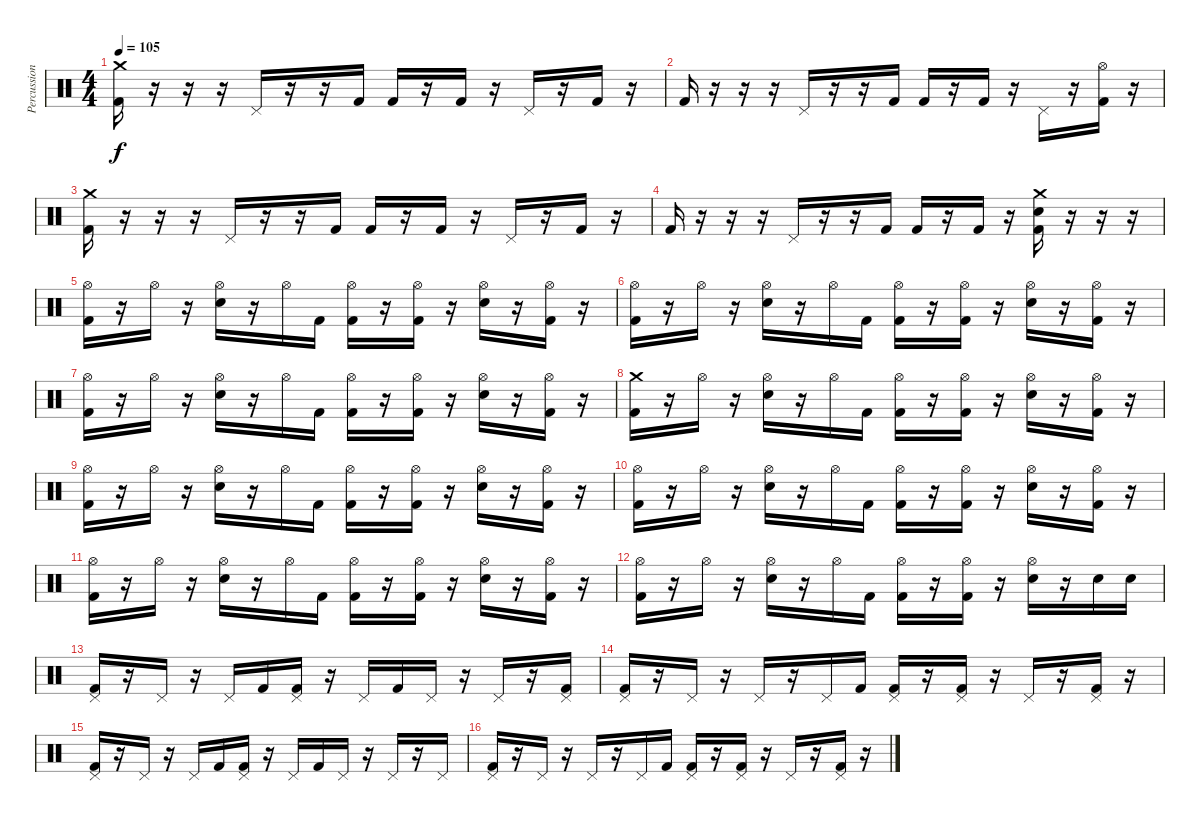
\track ("Percussions" "Percussion") {instrument percussion}
\staff {score}
\articulation defaults
\ts (4 4)
\tempo 105
\clef neutral
\ks c
("Crash medium (hit)" "Kick (hit) 2").16{dy f} r.16 r.16 r.16 "Pedal Hi-Hat (hit)".16 r.16 r.16 "Kick (hit) 2".16 "Kick (hit) 2".16 r.16 "Kick (hit) 2".16 r.16 "Pedal Hi-Hat (hit)".16 r.16 "Kick (hit) 2".16 r.16 |
"Kick (hit) 2".16 r.16 r.16 r.16 "Pedal Hi-Hat (hit)".16 r.16 r.16 "Kick (hit) 2".16 "Kick (hit) 2".16 r.16 "Kick (hit) 2".16 r.16 "Pedal Hi-Hat (hit)".16 r.16 ("Hi-Hat (open)" "Kick (hit) 2").16 r.16 |
("Crash medium (hit)" "Kick (hit) 2").16 r.16 r.16 r.16 "Pedal Hi-Hat (hit)".16 r.16 r.16 "Kick (hit) 2".16 "Kick (hit) 2".16 r.16 "Kick (hit) 2".16 r.16 "Pedal Hi-Hat (hit)".16 r.16 "Kick (hit) 2".16 r.16 |
"Kick (hit) 2".16 r.16 r.16 r.16 "Pedal Hi-Hat (hit)".16 r.16 r.16 "Kick (hit) 2".16 "Kick (hit) 2".16 r.16 "Kick (hit) 2".16 r.16 ("Crash medium (hit)" "Snare (hit) 2" "Kick (hit) 2").16 r.16 r.16 r.16 |
("Hi-Hat (open)" "Kick (hit) 2").16 r.16 "Hi-Hat (open)".16 r.16 ("Hi-Hat (open)" "Snare (hit) 2").16 r.16 "Hi-Hat (open)".16 "Kick (hit) 2".16 ("Hi-Hat (open)" "Kick (hit) 2").16 r.16 ("Hi-Hat (open)" "Kick (hit) 2").16 r.16 ("Hi-Hat (open)" "Snare (hit) 2").16 r.16 ("Hi-Hat (open)" "Kick (hit) 2").16 r.16 |
("Hi-Hat (open)" "Kick (hit) 2").16 r.16 "Hi-Hat (open)".16 r.16 ("Hi-Hat (open)" "Snare (hit) 2").16 r.16 "Hi-Hat (open)".16 "Kick (hit) 2".16 ("Hi-Hat (open)" "Kick (hit) 2").16 r.16 ("Hi-Hat (open)" "Kick (hit) 2").16 r.16 ("Hi-Hat (open)" "Snare (hit) 2").16 r.16 ("Hi-Hat (open)" "Kick (hit) 2").16 r.16 |
("Hi-Hat (open)" "Kick (hit) 2").16 r.16 "Hi-Hat (open)".16 r.16 ("Hi-Hat (open)" "Snare (hit) 2").16 r.16 "Hi-Hat (open)".16 "Kick (hit) 2".16 ("Hi-Hat (open)" "Kick (hit) 2").16 r.16 ("Hi-Hat (open)" "Kick (hit) 2").16 r.16 ("Hi-Hat (open)" "Snare (hit) 2").16 r.16 ("Hi-Hat (open)" "Kick (hit) 2").16 r.16 |
("Crash medium (hit)" "Kick (hit) 2").16 r.16 "Hi-Hat (open)".16 r.16 ("Hi-Hat (open)" "Snare (hit) 2").16 r.16 "Hi-Hat (open)".16 "Kick (hit) 2".16 ("Hi-Hat (open)" "Kick (hit) 2").16 r.16 ("Hi-Hat (open)" "Kick (hit) 2").16 r.16 ("Hi-Hat (open)" "Snare (hit) 2").16 r.16 ("Hi-Hat (open)" "Kick (hit) 2").16 r.16 |
("Hi-Hat (open)" "Kick (hit) 2").16 r.16 "Hi-Hat (open)".16 r.16 ("Hi-Hat (open)" "Snare (hit) 2").16 r.16 "Hi-Hat (open)".16 "Kick (hit) 2".16 ("Hi-Hat (open)" "Kick (hit) 2").16 r.16 ("Hi-Hat (open)" "Kick (hit) 2").16 r.16 ("Hi-Hat (open)" "Snare (hit) 2").16 r.16 ("Hi-Hat (open)" "Kick (hit) 2").16 r.16 |
("Hi-Hat (open)" "Kick (hit) 2").16 r.16 "Hi-Hat (open)".16 r.16 ("Hi-Hat (open)" "Snare (hit) 2").16 r.16 "Hi-Hat (open)".16 "Kick (hit) 2".16 ("Hi-Hat (open)" "Kick (hit) 2").16 r.16 ("Hi-Hat (open)" "Kick (hit) 2").16 r.16 ("Hi-Hat (open)" "Snare (hit) 2").16 r.16 ("Hi-Hat (open)" "Kick (hit) 2").16 r.16 |
("Hi-Hat (open)" "Kick (hit) 2").16 r.16 "Hi-Hat (open)".16 r.16 ("Hi-Hat (open)" "Snare (hit) 2").16 r.16 "Hi-Hat (open)".16 "Kick (hit) 2".16 ("Hi-Hat (open)" "Kick (hit) 2").16 r.16 ("Hi-Hat (open)" "Kick (hit) 2").16 r.16 ("Hi-Hat (open)" "Snare (hit) 2").16 r.16 ("Hi-Hat (open)" "Kick (hit) 2").16 r.16 |
("Hi-Hat (open)" "Kick (hit) 2").16 r.16 "Hi-Hat (open)".16 r.16 ("Hi-Hat (open)" "Snare (hit) 2").16 r.16 "Hi-Hat (open)".16 "Kick (hit) 2".16 ("Hi-Hat (open)" "Kick (hit) 2").16 r.16 ("Hi-Hat (open)" "Kick (hit) 2").16 r.16 ("Hi-Hat (open)" "Snare (hit) 2").16 r.16 "Snare (hit) 2".16 "Snare (hit) 2".16 |
("Pedal Hi-Hat (hit)" "Kick (hit) 2").16 r.16 "Pedal Hi-Hat (hit)".16 r.16 "Pedal Hi-Hat (hit)".16 "Kick (hit) 2".16 ("Pedal Hi-Hat (hit)" "Kick (hit) 2").16 r.16 "Pedal Hi-Hat (hit)".16 "Kick (hit) 2".16 "Pedal Hi-Hat (hit)".16 r.16 "Pedal Hi-Hat (hit)".16 r.16 ("Pedal Hi-Hat (hit)" "Kick (hit) 2").16 |
("Pedal Hi-Hat (hit)" "Kick (hit) 2").16 r.16 "Pedal Hi-Hat (hit)".16 r.16 "Pedal Hi-Hat (hit)".16 r.16 "Pedal Hi-Hat (hit)".16 "Kick (hit) 2".16 ("Pedal Hi-Hat (hit)" "Kick (hit) 2").16 r.16 ("Pedal Hi-Hat (hit)" "Kick (hit) 2").16 r.16 "Pedal Hi-Hat (hit)".16 r.16 ("Pedal Hi-Hat (hit)" "Kick (hit) 2").16 r.16 |
("Pedal Hi-Hat (hit)" "Kick (hit) 2").16 r.16 "Pedal Hi-Hat (hit)".16 r.16 "Pedal Hi-Hat (hit)".16 "Kick (hit) 2".16 ("Pedal Hi-Hat (hit)" "Kick (hit) 2").16 r.16 "Pedal Hi-Hat (hit)".16 "Kick (hit) 2".16 "Pedal Hi-Hat (hit)".16 r.16 "Pedal Hi-Hat (hit)".16 r.16 "Pedal Hi-Hat (hit)".16 |
("Pedal Hi-Hat (hit)" "Kick (hit) 2").16 r.16 "Pedal Hi-Hat (hit)".16 r.16 "Pedal Hi-Hat (hit)".16 r.16 "Pedal Hi-Hat (hit)".16 "Kick (hit) 2".16 ("Pedal Hi-Hat (hit)" "Kick (hit) 2").16 r.16 ("Pedal Hi-Hat (hit)" "Kick (hit) 2").16 r.16 "Pedal Hi-Hat (hit)".16 r.16 ("Pedal Hi-Hat (hit)" "Kick (hit) 2").16 r.16
